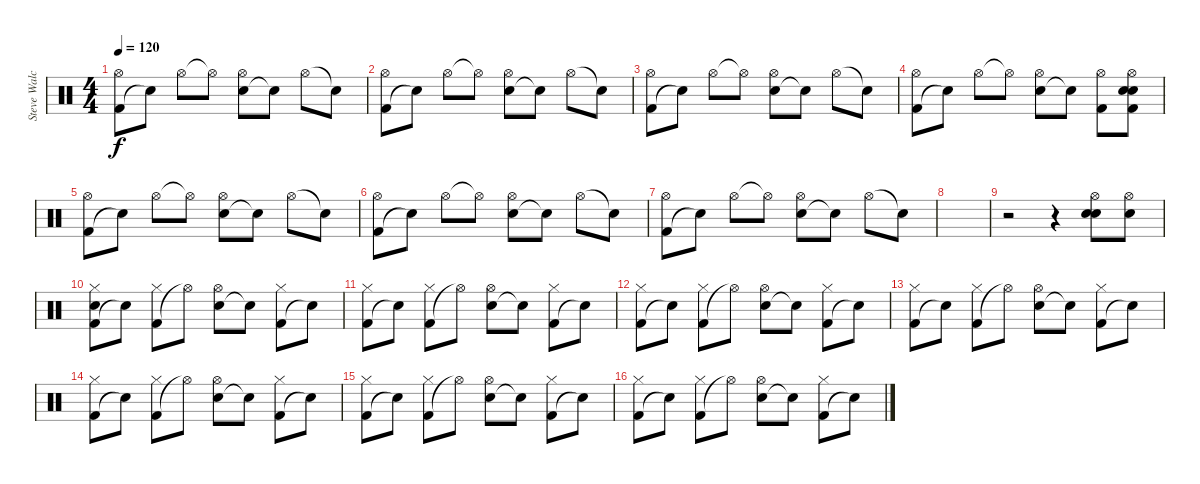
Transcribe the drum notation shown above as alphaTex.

\track ("Steve Walchoz" "Steve Walc") {instrument percussion}
\staff {score}
\articulation defaults
\ts (4 4)
\tempo 120
\clef neutral
\ks c
("Kick (hit) 2" "Hi-Hat (open)").8{dy f} "Snare (hit)"{t}.8 "Hi-Hat (open)".8 "Hi-Hat (open)"{t}.8 ("Electric Snare (hit)" "Hi-Hat (open)").8 "Snare (hit)"{t}.8 "Hi-Hat (open)".8 "Snare (hit)"{t}.8 |
("Kick (hit) 2" "Hi-Hat (open)").8 "Snare (hit)"{t}.8 "Hi-Hat (open)".8 "Hi-Hat (open)"{t}.8 ("Electric Snare (hit)" "Hi-Hat (open)").8 "Snare (hit)"{t}.8 "Hi-Hat (open)".8 "Snare (hit)"{t}.8 |
("Kick (hit) 2" "Hi-Hat (open)").8 "Snare (hit)"{t}.8 "Hi-Hat (open)".8 "Hi-Hat (open)"{t}.8 ("Electric Snare (hit)" "Hi-Hat (open)").8 "Snare (hit)"{t}.8 "Hi-Hat (open)".8 "Snare (hit)"{t}.8 |
("Kick (hit) 2" "Hi-Hat (open)").8 "Snare (hit)"{t}.8 "Hi-Hat (open)".8 "Hi-Hat (open)"{t}.8 ("Electric Snare (hit)" "Hi-Hat (open)").8 "Snare (hit)"{t}.8 ("Kick (hit) 2" "Hi-Hat (open)").8 ("Kick (hit) 2" "Electric Snare (hit)" "Snare (hit)" "Hi-Hat (open)").8 |
("Kick (hit) 2" "Hi-Hat (open)").8 "Snare (hit)"{t}.8 "Hi-Hat (open)".8 "Hi-Hat (open)"{t}.8 ("Electric Snare (hit)" "Hi-Hat (open)").8 "Snare (hit)"{t}.8 "Hi-Hat (open)".8 "Snare (hit)"{t}.8 |
("Kick (hit) 2" "Hi-Hat (open)").8 "Snare (hit)"{t}.8 "Hi-Hat (open)".8 "Hi-Hat (open)"{t}.8 ("Electric Snare (hit)" "Hi-Hat (open)").8 "Snare (hit)"{t}.8 "Hi-Hat (open)".8 "Snare (hit)"{t}.8 |
("Kick (hit) 2" "Hi-Hat (open)").8 "Snare (hit)"{t}.8 "Hi-Hat (open)".8 "Hi-Hat (open)"{t}.8 ("Electric Snare (hit)" "Hi-Hat (open)").8 "Snare (hit)"{t}.8 "Hi-Hat (open)".8 "Snare (hit)"{t}.8 |
|
r.2 r.4 ("Snare (hit) 2" "Hi-Hat (open)" "Snare (hit) 2").8 ("Hi-Hat (open)" "Electric Snare (hit)").8 |
("Kick (hit) 2" "Snare (hit) 2" "Hi-Hat (closed)").8 "Snare (hit)"{t}.8 ("Kick (hit) 2" "Hi-Hat (closed)").8 "Hi-Hat (open)"{t}.8 ("Electric Snare (hit)" "Hi-Hat (open)").8 "Snare (hit)"{t}.8 ("Kick (hit) 2" "Hi-Hat (closed)").8 "Snare (hit)"{t}.8 |
("Kick (hit) 2" "Hi-Hat (closed)").8 "Snare (hit)"{t}.8 ("Kick (hit) 2" "Hi-Hat (closed)").8 "Hi-Hat (open)"{t}.8 ("Electric Snare (hit)" "Hi-Hat (open)").8 "Snare (hit)"{t}.8 ("Kick (hit) 2" "Hi-Hat (closed)").8 "Snare (hit)"{t}.8 |
("Kick (hit) 2" "Hi-Hat (closed)").8 "Snare (hit)"{t}.8 ("Kick (hit) 2" "Hi-Hat (closed)").8 "Hi-Hat (open)"{t}.8 ("Electric Snare (hit)" "Hi-Hat (open)").8 "Snare (hit)"{t}.8 ("Kick (hit) 2" "Hi-Hat (closed)").8 "Snare (hit)"{t}.8 |
("Kick (hit) 2" "Hi-Hat (closed)").8 "Snare (hit)"{t}.8 ("Kick (hit) 2" "Hi-Hat (closed)").8 "Hi-Hat (open)"{t}.8 ("Electric Snare (hit)" "Hi-Hat (open)").8 "Snare (hit)"{t}.8 ("Kick (hit) 2" "Hi-Hat (closed)").8 "Snare (hit)"{t}.8 |
("Kick (hit) 2" "Hi-Hat (closed)").8 "Snare (hit)"{t}.8 ("Kick (hit) 2" "Hi-Hat (closed)").8 "Hi-Hat (open)"{t}.8 ("Electric Snare (hit)" "Hi-Hat (open)").8 "Snare (hit)"{t}.8 ("Kick (hit) 2" "Hi-Hat (closed)").8 "Snare (hit)"{t}.8 |
("Kick (hit) 2" "Hi-Hat (closed)").8 "Snare (hit)"{t}.8 ("Kick (hit) 2" "Hi-Hat (closed)").8 "Hi-Hat (open)"{t}.8 ("Electric Snare (hit)" "Hi-Hat (open)").8 "Snare (hit)"{t}.8 ("Kick (hit) 2" "Hi-Hat (closed)").8 "Snare (hit)"{t}.8 |
("Kick (hit) 2" "Hi-Hat (closed)").8 "Snare (hit)"{t}.8 ("Kick (hit) 2" "Hi-Hat (closed)").8 "Hi-Hat (open)"{t}.8 ("Electric Snare (hit)" "Hi-Hat (open)").8 "Snare (hit)"{t}.8 ("Kick (hit) 2" "Hi-Hat (closed)").8 "Snare (hit)"{t}.8
